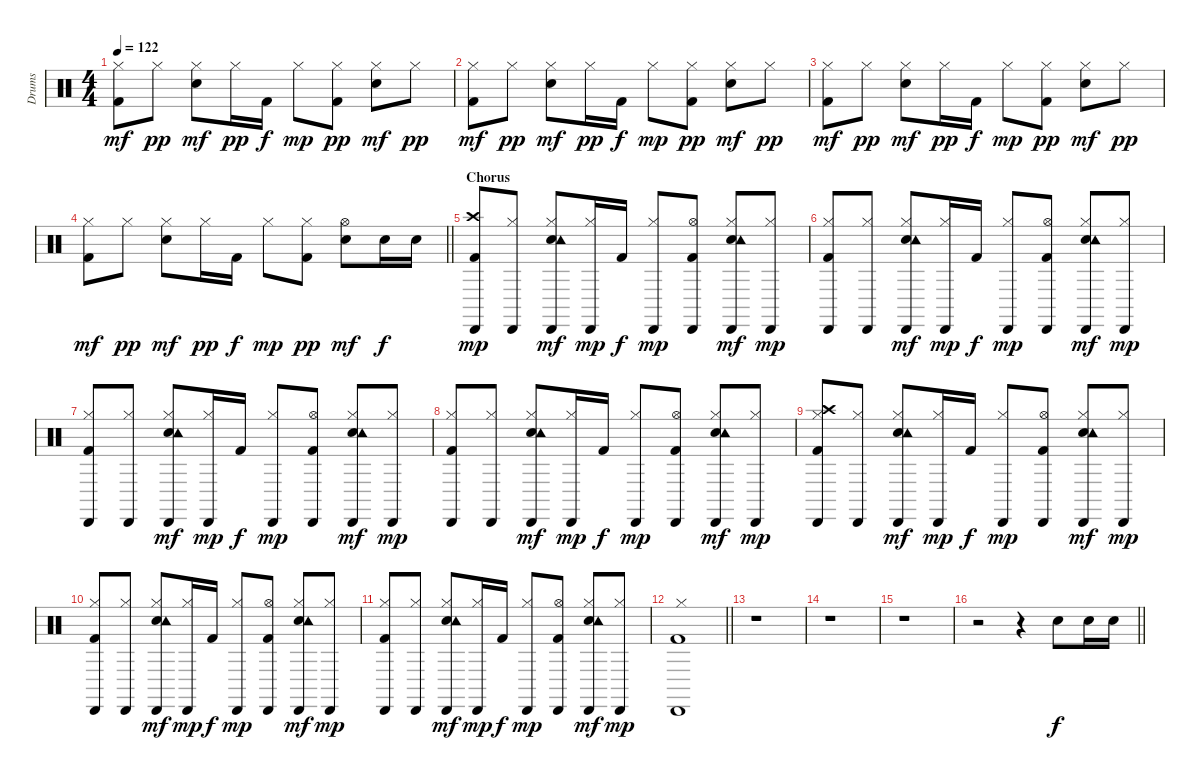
\track ("Drums" "Drums") {instrument percussion}
\staff {score}
\articulation defaults
\ts (4 4)
\tempo 122
\clef neutral
\ks c
("Hi-Hat (closed)" "Kick (hit) 2").8{dy mf} "Hi-Hat (closed)".8{dy pp} ("Hi-Hat (closed)" "Electric Snare (hit)").8{dy mf} "Hi-Hat (closed)".16{dy pp} "Kick (hit) 2".16{dy f} "Hi-Hat (closed)".8{dy mp} ("Hi-Hat (closed)" "Kick (hit) 2").8{dy pp} ("Hi-Hat (closed)" "Electric Snare (hit)").8{dy mf} "Hi-Hat (closed)".8{dy pp} |
("Hi-Hat (closed)" "Kick (hit) 2").8{dy mf} "Hi-Hat (closed)".8{dy pp} ("Hi-Hat (closed)" "Electric Snare (hit)").8{dy mf} "Hi-Hat (closed)".16{dy pp} "Kick (hit) 2".16{dy f} "Hi-Hat (closed)".8{dy mp} ("Hi-Hat (closed)" "Kick (hit) 2").8{dy pp} ("Hi-Hat (closed)" "Electric Snare (hit)").8{dy mf} "Hi-Hat (closed)".8{dy pp} |
("Hi-Hat (closed)" "Kick (hit) 2").8{dy mf} "Hi-Hat (closed)".8{dy pp} ("Hi-Hat (closed)" "Electric Snare (hit)").8{dy mf} "Hi-Hat (closed)".16{dy pp} "Kick (hit) 2".16{dy f} "Hi-Hat (closed)".8{dy mp} ("Hi-Hat (closed)" "Kick (hit) 2").8{dy pp} ("Hi-Hat (closed)" "Electric Snare (hit)").8{dy mf} "Hi-Hat (closed)".8{dy pp} |
\barLineRight lightlight
("Hi-Hat (closed)" "Kick (hit) 2").8{dy mf} "Hi-Hat (closed)".8{dy pp} ("Hi-Hat (closed)" "Electric Snare (hit)").8{dy mf} "Hi-Hat (closed)".16{dy pp} "Kick (hit) 2".16{dy f} "Hi-Hat (closed)".8{dy mp} ("Hi-Hat (closed)" "Kick (hit) 2").8{dy pp} ("Hi-Hat (open)" "Electric Snare (hit)").8{dy mf} "Electric Snare (hit)".16{dy f} "Electric Snare (hit)".16 |
\section ("" "Chorus")
("Crash high (hit)" "Cabasa (hit)" "Kick (hit) 2").8{dy mp} ("Hi-Hat (closed)" "Cabasa (hit)").8 ("Hi-Hat (closed)" "Electric Snare (hit)" "Cabasa (hit)" "Tambourine (hit)").8{dy mf} ("Hi-Hat (closed)" "Cabasa (hit)").16{dy mp} "Kick (hit) 2".16{dy f} ("Hi-Hat (closed)" "Cabasa (hit)").8{dy mp} ("Hi-Hat (open)" "Cabasa (hit)" "Kick (hit) 2").8 ("Hi-Hat (closed)" "Electric Snare (hit)" "Cabasa (hit)" "Tambourine (hit)").8{dy mf} ("Hi-Hat (closed)" "Cabasa (hit)").8{dy mp} |
("Hi-Hat (closed)" "Cabasa (hit)" "Kick (hit) 2").8 ("Hi-Hat (closed)" "Cabasa (hit)").8 ("Hi-Hat (closed)" "Electric Snare (hit)" "Cabasa (hit)" "Tambourine (hit)").8{dy mf} ("Hi-Hat (closed)" "Cabasa (hit)").16{dy mp} "Kick (hit) 2".16{dy f} ("Hi-Hat (closed)" "Cabasa (hit)").8{dy mp} ("Hi-Hat (open)" "Cabasa (hit)" "Kick (hit) 2").8 ("Hi-Hat (closed)" "Electric Snare (hit)" "Cabasa (hit)" "Tambourine (hit)").8{dy mf} ("Hi-Hat (closed)" "Cabasa (hit)").8{dy mp} |
("Hi-Hat (closed)" "Cabasa (hit)" "Kick (hit) 2").8 ("Hi-Hat (closed)" "Cabasa (hit)").8 ("Hi-Hat (closed)" "Electric Snare (hit)" "Cabasa (hit)" "Tambourine (hit)").8{dy mf} ("Hi-Hat (closed)" "Cabasa (hit)").16{dy mp} "Kick (hit) 2".16{dy f} ("Hi-Hat (closed)" "Cabasa (hit)").8{dy mp} ("Hi-Hat (open)" "Cabasa (hit)" "Kick (hit) 2").8 ("Hi-Hat (closed)" "Electric Snare (hit)" "Cabasa (hit)" "Tambourine (hit)").8{dy mf} ("Hi-Hat (closed)" "Cabasa (hit)").8{dy mp} |
("Hi-Hat (closed)" "Cabasa (hit)" "Kick (hit) 2").8 ("Hi-Hat (closed)" "Cabasa (hit)").8 ("Hi-Hat (closed)" "Electric Snare (hit)" "Cabasa (hit)" "Tambourine (hit)").8{dy mf} ("Hi-Hat (closed)" "Cabasa (hit)").16{dy mp} "Kick (hit) 2".16{dy f} ("Hi-Hat (closed)" "Cabasa (hit)").8{dy mp} ("Hi-Hat (open)" "Cabasa (hit)" "Kick (hit) 2").8 ("Hi-Hat (closed)" "Electric Snare (hit)" "Cabasa (hit)" "Tambourine (hit)").8{dy mf} ("Hi-Hat (closed)" "Cabasa (hit)").8{dy mp} |
("Hi-Hat (closed)" "Crash high (hit)" "Cabasa (hit)" "Kick (hit) 2").8 ("Hi-Hat (closed)" "Cabasa (hit)").8 ("Hi-Hat (closed)" "Electric Snare (hit)" "Cabasa (hit)" "Tambourine (hit)").8{dy mf} ("Hi-Hat (closed)" "Cabasa (hit)").16{dy mp} "Kick (hit) 2".16{dy f} ("Hi-Hat (closed)" "Cabasa (hit)").8{dy mp} ("Hi-Hat (open)" "Cabasa (hit)" "Kick (hit) 2").8 ("Hi-Hat (closed)" "Electric Snare (hit)" "Cabasa (hit)" "Tambourine (hit)").8{dy mf} ("Hi-Hat (closed)" "Cabasa (hit)").8{dy mp} |
("Hi-Hat (closed)" "Cabasa (hit)" "Kick (hit) 2").8 ("Hi-Hat (closed)" "Cabasa (hit)").8 ("Hi-Hat (closed)" "Electric Snare (hit)" "Cabasa (hit)" "Tambourine (hit)").8{dy mf} ("Hi-Hat (closed)" "Cabasa (hit)").16{dy mp} "Kick (hit) 2".16{dy f} ("Hi-Hat (closed)" "Cabasa (hit)").8{dy mp} ("Hi-Hat (open)" "Cabasa (hit)" "Kick (hit) 2").8 ("Hi-Hat (closed)" "Electric Snare (hit)" "Cabasa (hit)" "Tambourine (hit)").8{dy mf} ("Hi-Hat (closed)" "Cabasa (hit)").8{dy mp} |
("Hi-Hat (closed)" "Cabasa (hit)" "Kick (hit) 2").8 ("Hi-Hat (closed)" "Cabasa (hit)").8 ("Hi-Hat (closed)" "Electric Snare (hit)" "Cabasa (hit)" "Tambourine (hit)").8{dy mf} ("Hi-Hat (closed)" "Cabasa (hit)").16{dy mp} "Kick (hit) 2".16{dy f} ("Hi-Hat (closed)" "Cabasa (hit)").8{dy mp} ("Hi-Hat (open)" "Cabasa (hit)" "Kick (hit) 2").8 ("Hi-Hat (closed)" "Electric Snare (hit)" "Cabasa (hit)" "Tambourine (hit)").8{dy mf} ("Hi-Hat (closed)" "Cabasa (hit)").8{dy mp} |
\barLineRight lightlight
("Hi-Hat (closed)" "Cabasa (hit)" "Kick (hit) 2").1 |
r.1 |
r.1 |
r.1 |
\barLineRight lightlight
r.2 r.4 "Electric Snare (hit)".8{dy f} "Electric Snare (hit)".16 "Electric Snare (hit)".16
